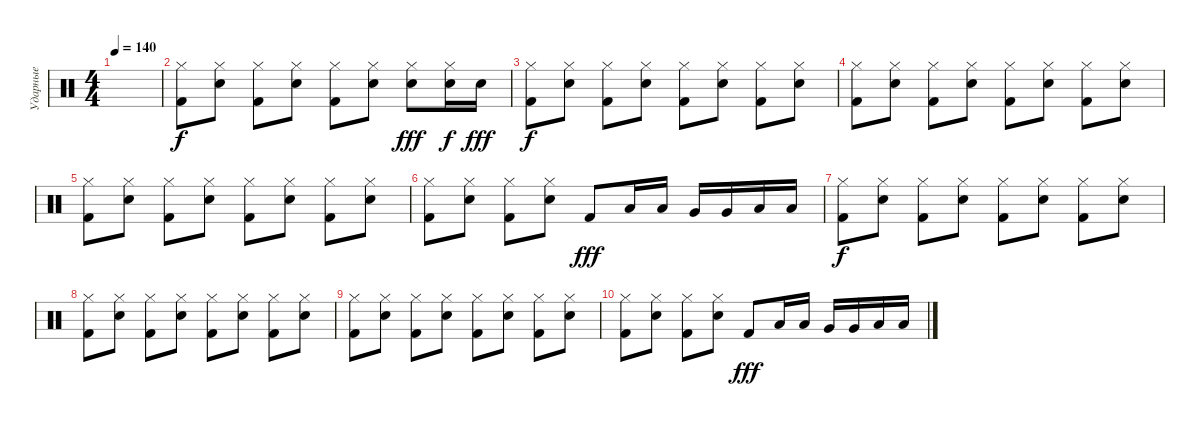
\track ("Ударные" "Ударные") {instrument percussion}
\staff {score}
\articulation defaults
\ts (4 4)
\tempo 140
\clef neutral
\ks c
|
("Hi-Hat (closed)" "Kick (hit) 2").8{dy f} ("Hi-Hat (closed)" "Electric Snare (hit)").8 ("Hi-Hat (closed)" "Kick (hit) 2").8 ("Hi-Hat (closed)" "Electric Snare (hit)").8 ("Hi-Hat (closed)" "Kick (hit) 2").8 ("Hi-Hat (closed)" "Electric Snare (hit)").8 ("Hi-Hat (closed)" "Electric Snare (hit)").8{dy fff} ("Hi-Hat (closed)" "Electric Snare (hit)").16{dy f} "Electric Snare (hit)".16{dy fff} |
("Hi-Hat (closed)" "Kick (hit) 2").8{dy f} ("Hi-Hat (closed)" "Electric Snare (hit)").8 ("Hi-Hat (closed)" "Kick (hit) 2").8 ("Hi-Hat (closed)" "Electric Snare (hit)").8 ("Hi-Hat (closed)" "Kick (hit) 2").8 ("Hi-Hat (closed)" "Electric Snare (hit)").8 ("Hi-Hat (closed)" "Kick (hit) 2").8 ("Hi-Hat (closed)" "Electric Snare (hit)").8 |
("Hi-Hat (closed)" "Kick (hit) 2").8 ("Hi-Hat (closed)" "Electric Snare (hit)").8 ("Hi-Hat (closed)" "Kick (hit) 2").8 ("Hi-Hat (closed)" "Electric Snare (hit)").8 ("Hi-Hat (closed)" "Kick (hit) 2").8 ("Hi-Hat (closed)" "Electric Snare (hit)").8 ("Hi-Hat (closed)" "Kick (hit) 2").8 ("Hi-Hat (closed)" "Electric Snare (hit)").8 |
("Hi-Hat (closed)" "Kick (hit) 2").8 ("Hi-Hat (closed)" "Electric Snare (hit)").8 ("Hi-Hat (closed)" "Kick (hit) 2").8 ("Hi-Hat (closed)" "Electric Snare (hit)").8 ("Hi-Hat (closed)" "Kick (hit) 2").8 ("Hi-Hat (closed)" "Electric Snare (hit)").8 ("Hi-Hat (closed)" "Kick (hit) 2").8 ("Hi-Hat (closed)" "Electric Snare (hit)").8 |
("Hi-Hat (closed)" "Kick (hit) 2").8 ("Hi-Hat (closed)" "Electric Snare (hit)").8 ("Hi-Hat (closed)" "Kick (hit) 2").8 ("Hi-Hat (closed)" "Electric Snare (hit)").8 "Kick (hit) 2".8{dy fff} "Low Tom (hit)".16 "Low Tom (hit)".16 "Very Low Tom (hit)".16 "Very Low Tom (hit)".16 "Low Floor Tom (hit)".16 "Low Floor Tom (hit)".16 |
("Hi-Hat (closed)" "Kick (hit) 2").8{dy f} ("Hi-Hat (closed)" "Electric Snare (hit)").8 ("Hi-Hat (closed)" "Kick (hit) 2").8 ("Hi-Hat (closed)" "Electric Snare (hit)").8 ("Hi-Hat (closed)" "Kick (hit) 2").8 ("Hi-Hat (closed)" "Electric Snare (hit)").8 ("Hi-Hat (closed)" "Kick (hit) 2").8 ("Hi-Hat (closed)" "Electric Snare (hit)").8 |
("Hi-Hat (closed)" "Kick (hit) 2").8 ("Hi-Hat (closed)" "Electric Snare (hit)").8 ("Hi-Hat (closed)" "Kick (hit) 2").8 ("Hi-Hat (closed)" "Electric Snare (hit)").8 ("Hi-Hat (closed)" "Kick (hit) 2").8 ("Hi-Hat (closed)" "Electric Snare (hit)").8 ("Hi-Hat (closed)" "Kick (hit) 2").8 ("Hi-Hat (closed)" "Electric Snare (hit)").8 |
("Hi-Hat (closed)" "Kick (hit) 2").8 ("Hi-Hat (closed)" "Electric Snare (hit)").8 ("Hi-Hat (closed)" "Kick (hit) 2").8 ("Hi-Hat (closed)" "Electric Snare (hit)").8 ("Hi-Hat (closed)" "Kick (hit) 2").8 ("Hi-Hat (closed)" "Electric Snare (hit)").8 ("Hi-Hat (closed)" "Kick (hit) 2").8 ("Hi-Hat (closed)" "Electric Snare (hit)").8 |
("Hi-Hat (closed)" "Kick (hit) 2").8 ("Hi-Hat (closed)" "Electric Snare (hit)").8 ("Hi-Hat (closed)" "Kick (hit) 2").8 ("Hi-Hat (closed)" "Electric Snare (hit)").8 "Kick (hit) 2".8{dy fff} "Low Tom (hit)".16 "Low Tom (hit)".16 "Very Low Tom (hit)".16 "Very Low Tom (hit)".16 "Low Floor Tom (hit)".16 "Low Floor Tom (hit)".16
